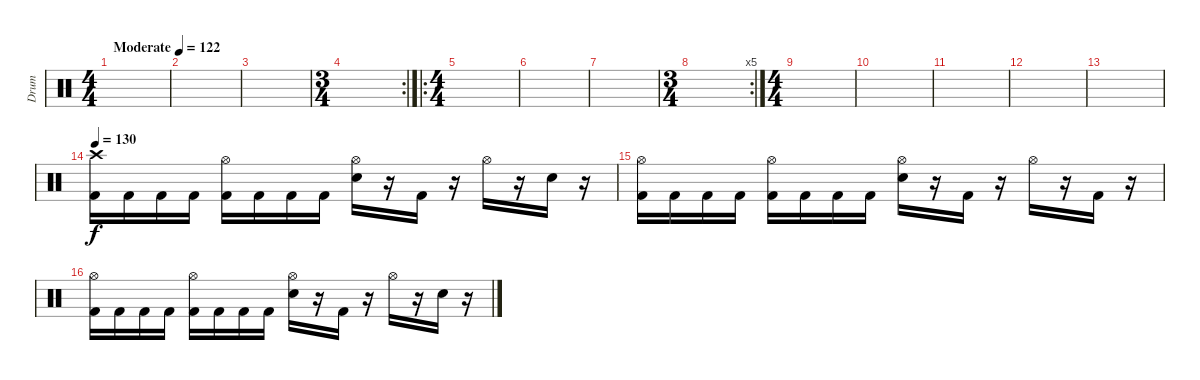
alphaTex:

\track ("Drum" "Drum") {instrument percussion}
\staff {score}
\articulation defaults
\ts (4 4)
\tempo (122 "Moderate")
\clef neutral
\ks c
|
|
|
\rc 2
\ts (3 4)
|
\ro
\ts (4 4)
|
|
|
\rc 5
\ts (3 4)
|
\ts (4 4)
|
|
|
|
|
\tempo 130
("Crash high (hit)" "Kick (hit) 2").16 "Kick (hit) 2".16 "Kick (hit) 2".16 "Kick (hit) 2".16 ("Hi-Hat (open)" "Kick (hit) 2").16 "Kick (hit) 2".16 "Kick (hit) 2".16 "Kick (hit) 2".16 ("Hi-Hat (open)" "Snare (hit) 2").16 r.16 "Kick (hit) 2".16 r.16 "Hi-Hat (open)".16 r.16 "Snare (hit) 2".16 r.16 |
("Hi-Hat (open)" "Kick (hit) 2").16 "Kick (hit) 2".16 "Kick (hit) 2".16 "Kick (hit) 2".16 ("Hi-Hat (open)" "Kick (hit) 2").16 "Kick (hit) 2".16 "Kick (hit) 2".16 "Kick (hit) 2".16 ("Hi-Hat (open)" "Snare (hit) 2").16 r.16 "Kick (hit) 2".16 r.16 "Hi-Hat (open)".16 r.16 "Kick (hit) 2".16 r.16 |
("Hi-Hat (open)" "Kick (hit) 2").16 "Kick (hit) 2".16 "Kick (hit) 2".16 "Kick (hit) 2".16 ("Hi-Hat (open)" "Kick (hit) 2").16 "Kick (hit) 2".16 "Kick (hit) 2".16 "Kick (hit) 2".16 ("Hi-Hat (open)" "Snare (hit) 2").16 r.16 "Kick (hit) 2".16 r.16 "Hi-Hat (open)".16 r.16 "Snare (hit) 2".16 r.16
